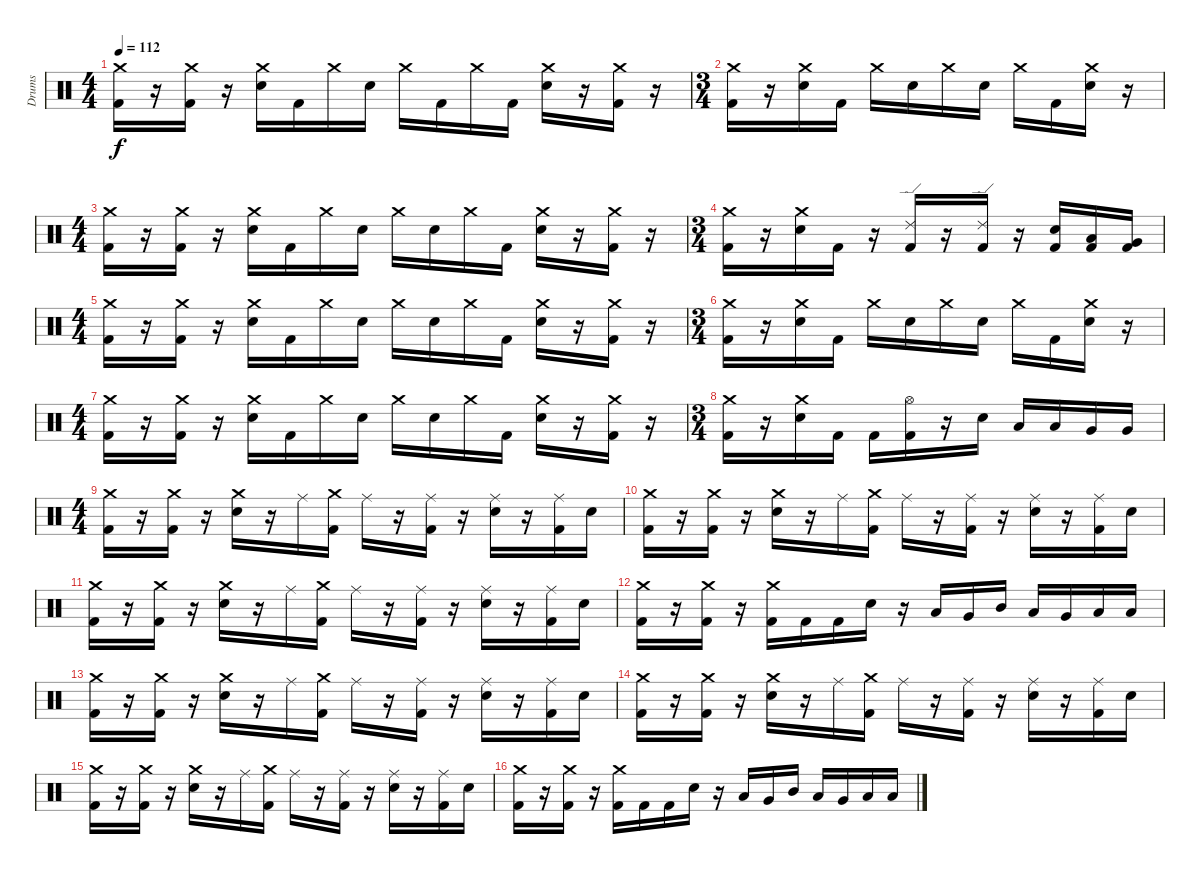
\track ("Drums" "Drums") {instrument percussion}
\staff {score}
\articulation defaults
\ts (4 4)
\section ("" "")
\tempo 112
\clef neutral
\ks c
("Crash medium (hit)" "Kick (hit) 2").16{dy f} r.16 ("Crash medium (hit)" "Kick (hit) 2").16 r.16 ("Crash medium (hit)" "Electric Snare (hit)").16 "Kick (hit) 2".16 "Crash medium (hit)".16 "Electric Snare (hit)".16 "Crash medium (hit)".16 "Kick (hit) 2".16 "Crash medium (hit)".16 "Kick (hit) 2".16 ("Crash medium (hit)" "Electric Snare (hit)").16 r.16 ("Crash medium (hit)" "Kick (hit) 2").16 r.16 |
\ts (3 4)
("Crash medium (hit)" "Kick (hit) 2").16 r.16 ("Crash medium (hit)" "Electric Snare (hit)").16 "Kick (hit) 2".16 "Crash medium (hit)".16 "Electric Snare (hit)".16 "Crash medium (hit)".16 "Electric Snare (hit)".16 "Crash medium (hit)".16 "Kick (hit) 2".16 ("Crash medium (hit)" "Electric Snare (hit)").16 r.16 |
\ts (4 4)
("Crash medium (hit)" "Kick (hit) 2").16 r.16 ("Crash medium (hit)" "Kick (hit) 2").16 r.16 ("Crash medium (hit)" "Electric Snare (hit)").16 "Kick (hit) 2".16 "Crash medium (hit)".16 "Electric Snare (hit)".16 "Crash medium (hit)".16 "Electric Snare (hit)".16 "Crash medium (hit)".16 "Kick (hit) 2".16 ("Crash medium (hit)" "Electric Snare (hit)").16 r.16 ("Crash medium (hit)" "Kick (hit) 2").16 r.16 |
\ts (3 4)
("Crash medium (hit)" "Kick (hit) 2").16 r.16 ("Crash medium (hit)" "Electric Snare (hit)").16 "Kick (hit) 2".16 r.16 ("Ride (edge) 2" "Kick (hit) 2").16 r.16 ("Ride (edge) 2" "Kick (hit) 2").16 r.16 ("Electric Snare (hit)" "Kick (hit) 2").16 ("Low Tom (hit)" "Kick (hit) 2").16 ("Very Low Tom (hit)" "Kick (hit) 2").16 |
\ts (4 4)
("Crash medium (hit)" "Kick (hit) 2").16 r.16 ("Crash medium (hit)" "Kick (hit) 2").16 r.16 ("Crash medium (hit)" "Electric Snare (hit)").16 "Kick (hit) 2".16 "Crash medium (hit)".16 "Electric Snare (hit)".16 "Crash medium (hit)".16 "Electric Snare (hit)".16 "Crash medium (hit)".16 "Kick (hit) 2".16 ("Crash medium (hit)" "Electric Snare (hit)").16 r.16 ("Crash medium (hit)" "Kick (hit) 2").16 r.16 |
\ts (3 4)
("Crash medium (hit)" "Kick (hit) 2").16 r.16 ("Crash medium (hit)" "Electric Snare (hit)").16 "Kick (hit) 2".16 "Crash medium (hit)".16 "Electric Snare (hit)".16 "Crash medium (hit)".16 "Electric Snare (hit)".16 "Crash medium (hit)".16 "Kick (hit) 2".16 ("Crash medium (hit)" "Electric Snare (hit)").16 r.16 |
\ts (4 4)
("Crash medium (hit)" "Kick (hit) 2").16 r.16 ("Crash medium (hit)" "Kick (hit) 2").16 r.16 ("Crash medium (hit)" "Electric Snare (hit)").16 "Kick (hit) 2".16 "Crash medium (hit)".16 "Electric Snare (hit)".16 "Crash medium (hit)".16 "Electric Snare (hit)".16 "Crash medium (hit)".16 "Kick (hit) 2".16 ("Crash medium (hit)" "Electric Snare (hit)").16 r.16 ("Crash medium (hit)" "Kick (hit) 2").16 r.16 |
\ts (3 4)
("Crash medium (hit)" "Kick (hit) 2").16 r.16 ("Crash medium (hit)" "Electric Snare (hit)").16 "Kick (hit) 2".16 "Kick (hit) 2".16 ("Hi-Hat (open)" "Kick (hit) 2").16 r.16 "Electric Snare (hit)".16 "Low Tom (hit)".16 "Low Tom (hit)".16 "Very Low Tom (hit)".16 "Very Low Tom (hit)".16 |
\ts (4 4)
\section ("" "")
("Crash medium (hit)" "Kick (hit) 2").16 r.16 ("Crash medium (hit)" "Kick (hit) 2").16 r.16 ("Crash medium (hit)" "Electric Snare (hit)").16 r.16 "Ride (middle)".16 ("Crash medium (hit)" "Kick (hit) 2").16 "Ride (middle)".16 r.16 ("Ride (middle)" "Kick (hit) 2").16 r.16 ("Ride (middle)" "Electric Snare (hit)").16 r.16 ("Ride (middle)" "Kick (hit) 2").16 "Electric Snare (hit)".16 |
("Crash medium (hit)" "Kick (hit) 2").16 r.16 ("Crash medium (hit)" "Kick (hit) 2").16 r.16 ("Crash medium (hit)" "Electric Snare (hit)").16 r.16 "Ride (middle)".16 ("Crash medium (hit)" "Kick (hit) 2").16 "Ride (middle)".16 r.16 ("Ride (middle)" "Kick (hit) 2").16 r.16 ("Ride (middle)" "Electric Snare (hit)").16 r.16 ("Ride (middle)" "Kick (hit) 2").16 "Electric Snare (hit)".16 |
("Crash medium (hit)" "Kick (hit) 2").16 r.16 ("Crash medium (hit)" "Kick (hit) 2").16 r.16 ("Crash medium (hit)" "Electric Snare (hit)").16 r.16 "Ride (middle)".16 ("Crash medium (hit)" "Kick (hit) 2").16 "Ride (middle)".16 r.16 ("Ride (middle)" "Kick (hit) 2").16 r.16 ("Ride (middle)" "Electric Snare (hit)").16 r.16 ("Ride (middle)" "Kick (hit) 2").16 "Electric Snare (hit)".16 |
("Crash medium (hit)" "Kick (hit) 2").16 r.16 ("Crash medium (hit)" "Kick (hit) 2").16 r.16 ("Crash medium (hit)" "Kick (hit) 2").16 "Kick (hit) 2".16 "Kick (hit) 2".16 "Electric Snare (hit)".16 r.16 "Low Tom (hit)".16 "Very Low Tom (hit)".16 "Mid Tom (hit)".16 "Low Tom (hit)".16 "Very Low Tom (hit)".16 "Low Floor Tom (hit)".16 "Low Floor Tom (hit)".16 |
("Crash medium (hit)" "Kick (hit) 2").16 r.16 ("Crash medium (hit)" "Kick (hit) 2").16 r.16 ("Crash medium (hit)" "Electric Snare (hit)").16 r.16 "Ride (middle)".16 ("Crash medium (hit)" "Kick (hit) 2").16 "Ride (middle)".16 r.16 ("Ride (middle)" "Kick (hit) 2").16 r.16 ("Ride (middle)" "Electric Snare (hit)").16 r.16 ("Ride (middle)" "Kick (hit) 2").16 "Electric Snare (hit)".16 |
("Crash medium (hit)" "Kick (hit) 2").16 r.16 ("Crash medium (hit)" "Kick (hit) 2").16 r.16 ("Crash medium (hit)" "Electric Snare (hit)").16 r.16 "Ride (middle)".16 ("Crash medium (hit)" "Kick (hit) 2").16 "Ride (middle)".16 r.16 ("Ride (middle)" "Kick (hit) 2").16 r.16 ("Ride (middle)" "Electric Snare (hit)").16 r.16 ("Ride (middle)" "Kick (hit) 2").16 "Electric Snare (hit)".16 |
("Crash medium (hit)" "Kick (hit) 2").16 r.16 ("Crash medium (hit)" "Kick (hit) 2").16 r.16 ("Crash medium (hit)" "Electric Snare (hit)").16 r.16 "Ride (middle)".16 ("Crash medium (hit)" "Kick (hit) 2").16 "Ride (middle)".16 r.16 ("Ride (middle)" "Kick (hit) 2").16 r.16 ("Ride (middle)" "Electric Snare (hit)").16 r.16 ("Ride (middle)" "Kick (hit) 2").16 "Electric Snare (hit)".16 |
("Crash medium (hit)" "Kick (hit) 2").16 r.16 ("Crash medium (hit)" "Kick (hit) 2").16 r.16 ("Crash medium (hit)" "Kick (hit) 2").16 "Kick (hit) 2".16 "Kick (hit) 2".16 "Electric Snare (hit)".16 r.16 "Low Tom (hit)".16 "Very Low Tom (hit)".16 "Mid Tom (hit)".16 "Low Tom (hit)".16 "Very Low Tom (hit)".16 "Low Floor Tom (hit)".16 "Low Floor Tom (hit)".16
